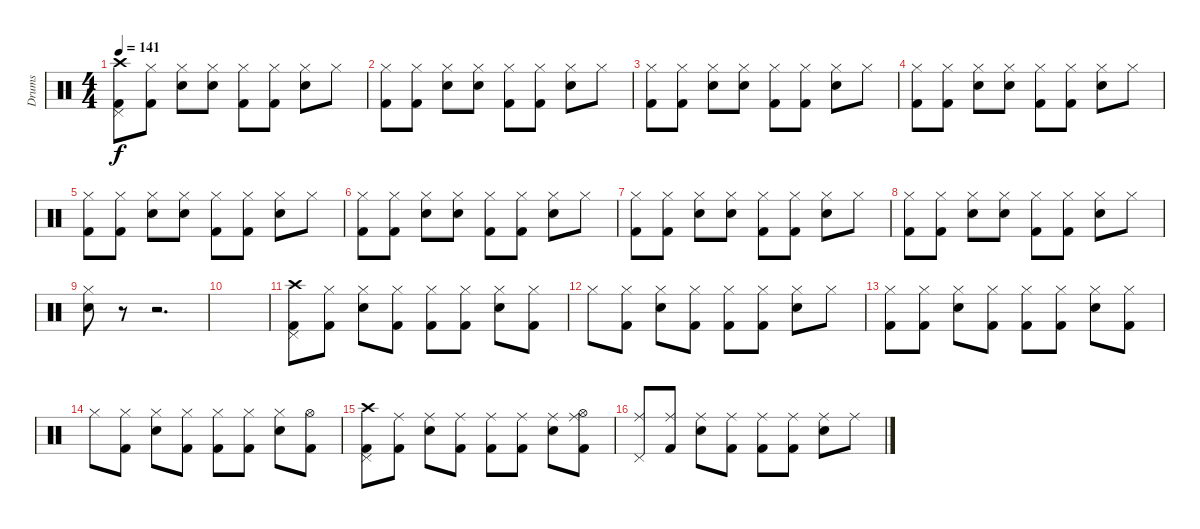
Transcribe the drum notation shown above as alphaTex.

\track ("Drums" "Drums") {instrument percussion}
\staff {score}
\articulation defaults
\ts (4 4)
\tempo 141
\clef neutral
\ks c
("Crash high (hit)" "Pedal Hi-Hat (hit)" "Kick (hit) 2").8{dy f} ("Hi-Hat (closed)" "Kick (hit) 2").8 ("Hi-Hat (closed)" "Electric Snare (hit)").8 ("Hi-Hat (closed)" "Electric Snare (hit)").8 ("Hi-Hat (closed)" "Kick (hit) 2").8 ("Hi-Hat (closed)" "Kick (hit) 2").8 ("Hi-Hat (closed)" "Electric Snare (hit)").8 "Hi-Hat (closed)".8 |
("Hi-Hat (closed)" "Kick (hit) 2").8 ("Hi-Hat (closed)" "Kick (hit) 2").8 ("Hi-Hat (closed)" "Electric Snare (hit)").8 ("Hi-Hat (closed)" "Electric Snare (hit)").8 ("Hi-Hat (closed)" "Kick (hit) 2").8 ("Hi-Hat (closed)" "Kick (hit) 2").8 ("Hi-Hat (closed)" "Electric Snare (hit)").8 "Hi-Hat (closed)".8 |
("Hi-Hat (closed)" "Kick (hit) 2").8 ("Hi-Hat (closed)" "Kick (hit) 2").8 ("Hi-Hat (closed)" "Electric Snare (hit)").8 ("Hi-Hat (closed)" "Electric Snare (hit)").8 ("Hi-Hat (closed)" "Kick (hit) 2").8 ("Hi-Hat (closed)" "Kick (hit) 2").8 ("Hi-Hat (closed)" "Electric Snare (hit)").8 "Hi-Hat (closed)".8 |
("Hi-Hat (closed)" "Kick (hit) 2").8 ("Hi-Hat (closed)" "Kick (hit) 2").8 ("Hi-Hat (closed)" "Electric Snare (hit)").8 ("Hi-Hat (closed)" "Electric Snare (hit)").8 ("Hi-Hat (closed)" "Kick (hit) 2").8 ("Hi-Hat (closed)" "Kick (hit) 2").8 ("Hi-Hat (closed)" "Electric Snare (hit)").8 "Hi-Hat (closed)".8 |
("Hi-Hat (closed)" "Kick (hit) 2").8 ("Hi-Hat (closed)" "Kick (hit) 2").8 ("Hi-Hat (closed)" "Electric Snare (hit)").8 ("Hi-Hat (closed)" "Electric Snare (hit)").8 ("Hi-Hat (closed)" "Kick (hit) 2").8 ("Hi-Hat (closed)" "Kick (hit) 2").8 ("Hi-Hat (closed)" "Electric Snare (hit)").8 "Hi-Hat (closed)".8 |
("Hi-Hat (closed)" "Kick (hit) 2").8 ("Hi-Hat (closed)" "Kick (hit) 2").8 ("Hi-Hat (closed)" "Electric Snare (hit)").8 ("Hi-Hat (closed)" "Electric Snare (hit)").8 ("Hi-Hat (closed)" "Kick (hit) 2").8 ("Hi-Hat (closed)" "Kick (hit) 2").8 ("Hi-Hat (closed)" "Electric Snare (hit)").8 "Hi-Hat (closed)".8 |
("Hi-Hat (closed)" "Kick (hit) 2").8 ("Hi-Hat (closed)" "Kick (hit) 2").8 ("Hi-Hat (closed)" "Electric Snare (hit)").8 ("Hi-Hat (closed)" "Electric Snare (hit)").8 ("Hi-Hat (closed)" "Kick (hit) 2").8 ("Hi-Hat (closed)" "Kick (hit) 2").8 ("Hi-Hat (closed)" "Electric Snare (hit)").8 "Hi-Hat (closed)".8 |
("Hi-Hat (closed)" "Kick (hit) 2").8 ("Hi-Hat (closed)" "Kick (hit) 2").8 ("Hi-Hat (closed)" "Electric Snare (hit)").8 ("Hi-Hat (closed)" "Electric Snare (hit)").8 ("Hi-Hat (closed)" "Kick (hit) 2").8 ("Hi-Hat (closed)" "Kick (hit) 2").8 ("Hi-Hat (closed)" "Electric Snare (hit)").8 "Hi-Hat (closed)".8 |
("Hi-Hat (closed)" "Electric Snare (hit)").8 r.8 r.2{d} |
|
("Crash high (hit)" "Pedal Hi-Hat (hit)" "Kick (hit) 2").8 ("Hi-Hat (closed)" "Kick (hit) 2").8 ("Hi-Hat (closed)" "Electric Snare (hit)").8 ("Hi-Hat (closed)" "Kick (hit) 2").8 ("Hi-Hat (closed)" "Kick (hit) 2").8 ("Hi-Hat (closed)" "Kick (hit) 2").8 ("Hi-Hat (closed)" "Electric Snare (hit)").8 ("Hi-Hat (closed)" "Kick (hit) 2").8 |
"Hi-Hat (closed)".8 ("Hi-Hat (closed)" "Kick (hit) 2").8 ("Hi-Hat (closed)" "Electric Snare (hit)").8 ("Hi-Hat (closed)" "Kick (hit) 2").8 ("Hi-Hat (closed)" "Kick (hit) 2").8 ("Hi-Hat (closed)" "Kick (hit) 2").8 ("Hi-Hat (closed)" "Electric Snare (hit)").8 "Hi-Hat (closed)".8 |
("Hi-Hat (closed)" "Kick (hit) 2").8 ("Hi-Hat (closed)" "Kick (hit) 2").8 ("Hi-Hat (closed)" "Electric Snare (hit)").8 ("Hi-Hat (closed)" "Kick (hit) 2").8 ("Hi-Hat (closed)" "Kick (hit) 2").8 ("Hi-Hat (closed)" "Kick (hit) 2").8 ("Hi-Hat (closed)" "Electric Snare (hit)").8 ("Hi-Hat (closed)" "Kick (hit) 2").8 |
"Hi-Hat (closed)".8 ("Hi-Hat (closed)" "Kick (hit) 2").8 ("Hi-Hat (closed)" "Electric Snare (hit)").8 ("Hi-Hat (closed)" "Kick (hit) 2").8 ("Hi-Hat (closed)" "Kick (hit) 2").8 ("Hi-Hat (closed)" "Kick (hit) 2").8 ("Hi-Hat (closed)" "Electric Snare (hit)").8 ("Hi-Hat (open)" "Kick (hit) 2").8 |
("Crash high (hit)" "Pedal Hi-Hat (hit)" "Kick (hit) 2").8 ("Ride (middle)" "Kick (hit) 2").8 ("Ride (middle)" "Electric Snare (hit)").8 ("Ride (middle)" "Kick (hit) 2").8 ("Ride (middle)" "Kick (hit) 2").8 ("Ride (middle)" "Kick (hit) 2").8 ("Ride (middle)" "Electric Snare (hit)").8 ("Ride (middle)" "Hi-Hat (open)" "Kick (hit) 2").8 |
("Ride (middle)" "Pedal Hi-Hat (hit)").8 ("Ride (middle)" "Kick (hit) 2").8 ("Ride (middle)" "Electric Snare (hit)").8 ("Ride (middle)" "Kick (hit) 2").8 ("Ride (middle)" "Kick (hit) 2").8 ("Ride (middle)" "Kick (hit) 2").8 ("Ride (middle)" "Electric Snare (hit)").8 "Ride (middle)".8
